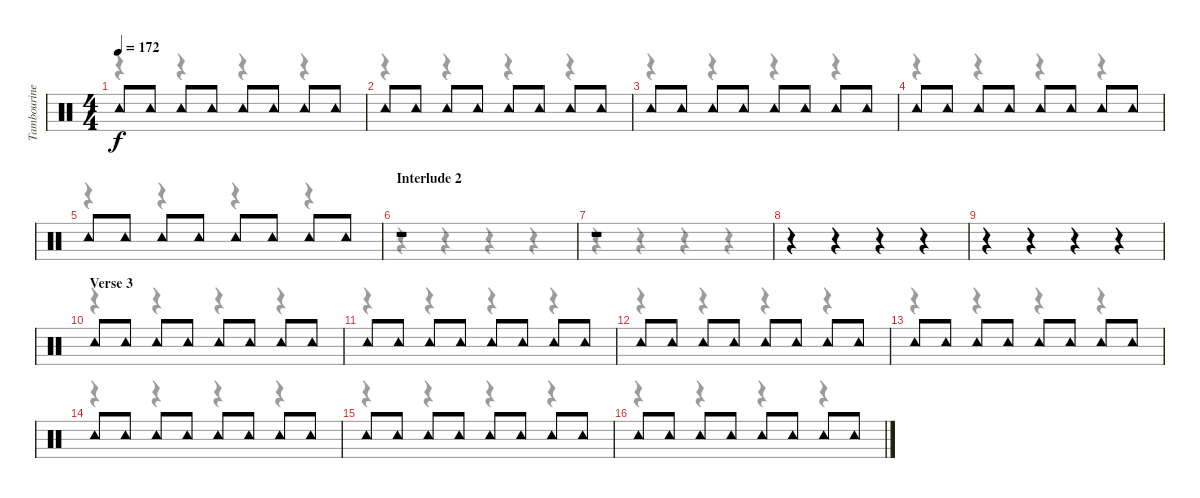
\track ("Tambourine" "Tambourine") {instrument percussion}
\staff {score}
\articulation defaults
\voice
\ts (4 4)
\tempo 172
\clef neutral
\ks c "Tambourine (hit)".8{dy f} "Tambourine (hit)".8 "Tambourine (hit)".8 "Tambourine (hit)".8 "Tambourine (hit)".8 "Tambourine (hit)".8 "Tambourine (hit)".8 "Tambourine (hit)".8
|
"Tambourine (hit)".8 "Tambourine (hit)".8 "Tambourine (hit)".8 "Tambourine (hit)".8 "Tambourine (hit)".8 "Tambourine (hit)".8 "Tambourine (hit)".8 "Tambourine (hit)".8 |
"Tambourine (hit)".8 "Tambourine (hit)".8 "Tambourine (hit)".8 "Tambourine (hit)".8 "Tambourine (hit)".8 "Tambourine (hit)".8 "Tambourine (hit)".8 "Tambourine (hit)".8 |
"Tambourine (hit)".8 "Tambourine (hit)".8 "Tambourine (hit)".8 "Tambourine (hit)".8 "Tambourine (hit)".8 "Tambourine (hit)".8 "Tambourine (hit)".8 "Tambourine (hit)".8 |
"Tambourine (hit)".8 "Tambourine (hit)".8 "Tambourine (hit)".8 "Tambourine (hit)".8 "Tambourine (hit)".8 "Tambourine (hit)".8 "Tambourine (hit)".8 "Tambourine (hit)".8 |
\section ("" "Interlude 2")
r.1 |
r.1 |
r.4 r.4 r.4 r.4 |
r.4 r.4 r.4 r.4 |
\section ("" "Verse 3")
"Tambourine (hit)".8 "Tambourine (hit)".8 "Tambourine (hit)".8 "Tambourine (hit)".8 "Tambourine (hit)".8 "Tambourine (hit)".8 "Tambourine (hit)".8 "Tambourine (hit)".8 |
"Tambourine (hit)".8 "Tambourine (hit)".8 "Tambourine (hit)".8 "Tambourine (hit)".8 "Tambourine (hit)".8 "Tambourine (hit)".8 "Tambourine (hit)".8 "Tambourine (hit)".8 |
"Tambourine (hit)".8 "Tambourine (hit)".8 "Tambourine (hit)".8 "Tambourine (hit)".8 "Tambourine (hit)".8 "Tambourine (hit)".8 "Tambourine (hit)".8 "Tambourine (hit)".8 |
"Tambourine (hit)".8 "Tambourine (hit)".8 "Tambourine (hit)".8 "Tambourine (hit)".8 "Tambourine (hit)".8 "Tambourine (hit)".8 "Tambourine (hit)".8 "Tambourine (hit)".8 |
"Tambourine (hit)".8 "Tambourine (hit)".8 "Tambourine (hit)".8 "Tambourine (hit)".8 "Tambourine (hit)".8 "Tambourine (hit)".8 "Tambourine (hit)".8 "Tambourine (hit)".8 |
"Tambourine (hit)".8 "Tambourine (hit)".8 "Tambourine (hit)".8 "Tambourine (hit)".8 "Tambourine (hit)".8 "Tambourine (hit)".8 "Tambourine (hit)".8 "Tambourine (hit)".8 |
"Tambourine (hit)".8 "Tambourine (hit)".8 "Tambourine (hit)".8 "Tambourine (hit)".8 "Tambourine (hit)".8 "Tambourine (hit)".8 "Tambourine (hit)".8 "Tambourine (hit)".8
\voice
\clef neutral
\ottava regular
\simile none
\ks c
r.4{dy f} r.4 r.4 r.4 |
r.4 r.4 r.4 r.4 |
r.4 r.4 r.4 r.4 |
r.4 r.4 r.4 r.4 |
r.4 r.4 r.4 r.4 |
r.4 r.4 r.4 r.4 |
r.4 r.4 r.4 r.4 |
r.4 r.4 r.4 r.4 |
r.4 r.4 r.4 r.4 |
r.4 r.4 r.4 r.4 |
r.4 r.4 r.4 r.4 |
r.4 r.4 r.4 r.4 |
r.4 r.4 r.4 r.4 |
r.4 r.4 r.4 r.4 |
r.4 r.4 r.4 r.4 |
r.4 r.4 r.4 r.4
